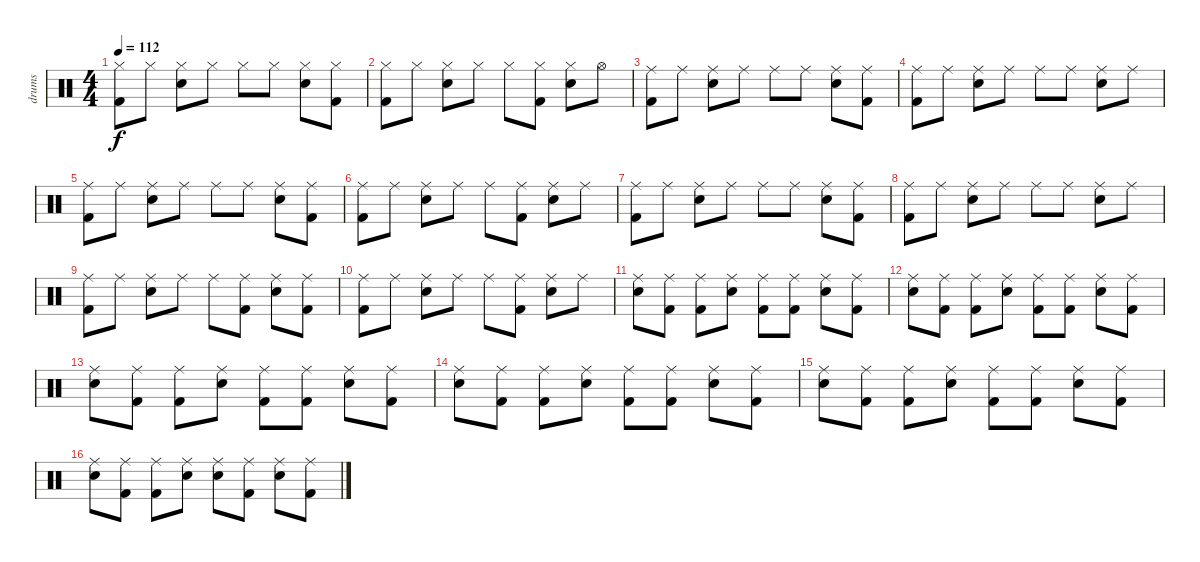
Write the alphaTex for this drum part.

\track ("drums" "drums") {instrument percussion}
\staff {score}
\articulation defaults
\ts (4 4)
\tempo 112
\clef neutral
\ks c
("Hi-Hat (closed)" "Kick (hit) 2").8{dy f} "Hi-Hat (closed)".8 ("Hi-Hat (closed)" "Snare (hit) 2").8 "Hi-Hat (closed)".8 "Hi-Hat (closed)".8 "Hi-Hat (closed)".8 ("Hi-Hat (closed)" "Snare (hit) 2").8 ("Hi-Hat (closed)" "Kick (hit) 2").8 |
("Hi-Hat (closed)" "Kick (hit) 2").8 "Hi-Hat (closed)".8 ("Hi-Hat (closed)" "Snare (hit) 2").8 "Hi-Hat (closed)".8 "Hi-Hat (closed)".8 ("Hi-Hat (closed)" "Kick (hit) 2").8 ("Hi-Hat (closed)" "Snare (hit) 2").8 "Hi-Hat (open)".8 |
("Ride (middle)" "Kick (hit) 2").8 "Ride (middle)".8 ("Ride (middle)" "Snare (hit) 2").8 "Ride (middle)".8 "Ride (middle)".8 "Ride (middle)".8 ("Ride (middle)" "Snare (hit) 2").8 ("Ride (middle)" "Kick (hit) 2").8 |
("Ride (middle)" "Kick (hit) 2").8 "Ride (middle)".8 ("Ride (middle)" "Snare (hit) 2").8 "Ride (middle)".8 "Ride (middle)".8 "Ride (middle)".8 ("Ride (middle)" "Snare (hit) 2").8 "Ride (middle)".8 |
("Ride (middle)" "Kick (hit) 2").8 "Ride (middle)".8 ("Ride (middle)" "Snare (hit) 2").8 "Ride (middle)".8 "Ride (middle)".8 "Ride (middle)".8 ("Ride (middle)" "Snare (hit) 2").8 ("Ride (middle)" "Kick (hit) 2").8 |
("Ride (middle)" "Kick (hit) 2").8 "Ride (middle)".8 ("Ride (middle)" "Snare (hit) 2").8 "Ride (middle)".8 "Ride (middle)".8 ("Ride (middle)" "Kick (hit) 2").8 ("Ride (middle)" "Snare (hit) 2").8 "Ride (middle)".8 |
("Ride (middle)" "Kick (hit) 2").8 "Ride (middle)".8 ("Ride (middle)" "Snare (hit) 2").8 "Ride (middle)".8 "Ride (middle)".8 "Ride (middle)".8 ("Ride (middle)" "Snare (hit) 2").8 ("Ride (middle)" "Kick (hit) 2").8 |
("Ride (middle)" "Kick (hit) 2").8 "Ride (middle)".8 ("Ride (middle)" "Snare (hit) 2").8 "Ride (middle)".8 "Ride (middle)".8 "Ride (middle)".8 ("Ride (middle)" "Snare (hit) 2").8 "Ride (middle)".8 |
("Ride (middle)" "Kick (hit) 2").8 "Ride (middle)".8 ("Ride (middle)" "Snare (hit) 2").8 "Ride (middle)".8 "Ride (middle)".8 ("Ride (middle)" "Kick (hit) 2").8 ("Ride (middle)" "Snare (hit) 2").8 ("Ride (middle)" "Kick (hit) 2").8 |
("Ride (middle)" "Kick (hit) 2").8 "Ride (middle)".8 ("Ride (middle)" "Snare (hit) 2").8 "Ride (middle)".8 "Ride (middle)".8 ("Ride (middle)" "Kick (hit) 2").8 ("Ride (middle)" "Snare (hit) 2").8 "Ride (middle)".8 |
("Ride (middle)" "Snare (hit) 2").8 ("Ride (middle)" "Kick (hit) 2").8 ("Ride (middle)" "Kick (hit) 2").8 ("Ride (middle)" "Snare (hit) 2").8 ("Ride (middle)" "Kick (hit) 2").8 ("Ride (middle)" "Kick (hit) 2").8 ("Ride (middle)" "Snare (hit) 2").8 ("Ride (middle)" "Kick (hit) 2").8 |
("Ride (middle)" "Snare (hit) 2").8 ("Ride (middle)" "Kick (hit) 2").8 ("Ride (middle)" "Kick (hit) 2").8 ("Ride (middle)" "Snare (hit) 2").8 ("Ride (middle)" "Kick (hit) 2").8 ("Ride (middle)" "Kick (hit) 2").8 ("Ride (middle)" "Snare (hit) 2").8 ("Ride (middle)" "Kick (hit) 2").8 |
("Ride (middle)" "Snare (hit) 2").8 ("Ride (middle)" "Kick (hit) 2").8 ("Ride (middle)" "Kick (hit) 2").8 ("Ride (middle)" "Snare (hit) 2").8 ("Ride (middle)" "Kick (hit) 2").8 ("Ride (middle)" "Kick (hit) 2").8 ("Ride (middle)" "Snare (hit) 2").8 ("Ride (middle)" "Kick (hit) 2").8 |
("Ride (middle)" "Snare (hit) 2").8 ("Ride (middle)" "Kick (hit) 2").8 ("Ride (middle)" "Kick (hit) 2").8 ("Ride (middle)" "Snare (hit) 2").8 ("Ride (middle)" "Kick (hit) 2").8 ("Ride (middle)" "Kick (hit) 2").8 ("Ride (middle)" "Snare (hit) 2").8 ("Ride (middle)" "Kick (hit) 2").8 |
("Ride (middle)" "Snare (hit) 2").8 ("Ride (middle)" "Kick (hit) 2").8 ("Ride (middle)" "Kick (hit) 2").8 ("Ride (middle)" "Snare (hit) 2").8 ("Ride (middle)" "Kick (hit) 2").8 ("Ride (middle)" "Kick (hit) 2").8 ("Ride (middle)" "Snare (hit) 2").8 ("Ride (middle)" "Kick (hit) 2").8 |
("Ride (middle)" "Snare (hit) 2").8 ("Ride (middle)" "Kick (hit) 2").8 ("Ride (middle)" "Kick (hit) 2").8 ("Ride (middle)" "Snare (hit) 2").8 ("Ride (middle)" "Snare (hit) 2").8 ("Ride (middle)" "Kick (hit) 2").8 ("Ride (middle)" "Snare (hit) 2").8 ("Ride (middle)" "Kick (hit) 2").8
